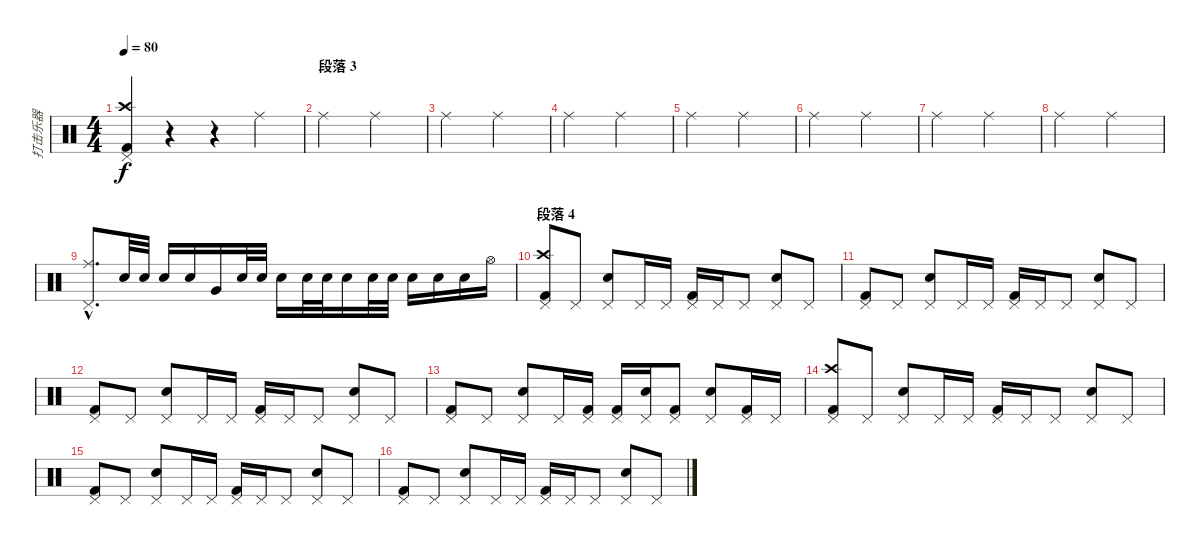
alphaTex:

\track ("打击乐器" "打击乐器") {instrument percussion}
\staff {score}
\articulation defaults
\ts (4 4)
\tempo 80
\clef neutral
\ks c
("Pedal Hi-Hat (hit)" "Crash high (hit)" "Kick (hit) 2").4{dy f} r.4 r.4 "Ride (middle)".4 |
\section ("" "段落 3")
"Ride (middle)".2 "Ride (middle)".2 |
"Ride (middle)".2 "Ride (middle)".2 |
"Ride (middle)".2 "Ride (middle)".2 |
"Ride (middle)".2 "Ride (middle)".2 |
"Ride (middle)".2 "Ride (middle)".2 |
"Ride (middle)".2 "Ride (middle)".2 |
"Ride (middle)".2 "Ride (middle)".2 |
("Ride (middle)"{hac} "Pedal Hi-Hat (hit)"{hac}).8{d} "Snare (hit) 2".32 "Snare (hit) 2".32 "Snare (hit) 2".16 "Snare (hit) 2".16 "Very Low Tom (hit)".16 "Snare (hit) 2".32 "Snare (hit) 2".32 "Snare (hit) 2".16 "Snare (hit) 2".32 "Snare (hit) 2".32 "Snare (hit) 2".16 "Snare (hit) 2".32 "Snare (hit) 2".32 "Snare (hit) 2".16 "Snare (hit) 2".16 "Snare (hit) 2".16 "Hi-Hat (open)".16 |
\section ("" "段落 4")
("Pedal Hi-Hat (hit)" "Crash high (hit)" "Kick (hit) 2").8 "Pedal Hi-Hat (hit)".8 ("Pedal Hi-Hat (hit)" "Snare (hit) 2").8 "Pedal Hi-Hat (hit)".16 "Pedal Hi-Hat (hit)".16 ("Pedal Hi-Hat (hit)" "Kick (hit) 2").16 "Pedal Hi-Hat (hit)".16 "Pedal Hi-Hat (hit)".8 ("Pedal Hi-Hat (hit)" "Snare (hit) 2").8 "Pedal Hi-Hat (hit)".8 |
("Pedal Hi-Hat (hit)" "Kick (hit) 2").8 "Pedal Hi-Hat (hit)".8 ("Pedal Hi-Hat (hit)" "Snare (hit) 2").8 "Pedal Hi-Hat (hit)".16 "Pedal Hi-Hat (hit)".16 ("Pedal Hi-Hat (hit)" "Kick (hit) 2").16 "Pedal Hi-Hat (hit)".16 "Pedal Hi-Hat (hit)".8 ("Pedal Hi-Hat (hit)" "Snare (hit) 2").8 "Pedal Hi-Hat (hit)".8 |
("Pedal Hi-Hat (hit)" "Kick (hit) 2").8 "Pedal Hi-Hat (hit)".8 ("Pedal Hi-Hat (hit)" "Snare (hit) 2").8 "Pedal Hi-Hat (hit)".16 "Pedal Hi-Hat (hit)".16 ("Pedal Hi-Hat (hit)" "Kick (hit) 2").16 "Pedal Hi-Hat (hit)".16 "Pedal Hi-Hat (hit)".8 ("Pedal Hi-Hat (hit)" "Snare (hit) 2").8 "Pedal Hi-Hat (hit)".8 |
("Pedal Hi-Hat (hit)" "Kick (hit) 2").8 "Pedal Hi-Hat (hit)".8 ("Pedal Hi-Hat (hit)" "Snare (hit) 2").8 "Pedal Hi-Hat (hit)".16 ("Pedal Hi-Hat (hit)" "Kick (hit) 2").16 ("Pedal Hi-Hat (hit)" "Kick (hit) 2").16 ("Pedal Hi-Hat (hit)" "Snare (hit) 2").16 ("Pedal Hi-Hat (hit)" "Kick (hit) 2").8 ("Pedal Hi-Hat (hit)" "Snare (hit) 2").8 ("Pedal Hi-Hat (hit)" "Kick (hit) 2").16 "Pedal Hi-Hat (hit)".16 |
("Pedal Hi-Hat (hit)" "Crash high (hit)" "Kick (hit) 2").8 "Pedal Hi-Hat (hit)".8 ("Pedal Hi-Hat (hit)" "Snare (hit) 2").8 "Pedal Hi-Hat (hit)".16 "Pedal Hi-Hat (hit)".16 ("Pedal Hi-Hat (hit)" "Kick (hit) 2").16 "Pedal Hi-Hat (hit)".16 "Pedal Hi-Hat (hit)".8 ("Pedal Hi-Hat (hit)" "Snare (hit) 2").8 "Pedal Hi-Hat (hit)".8 |
("Pedal Hi-Hat (hit)" "Kick (hit) 2").8 "Pedal Hi-Hat (hit)".8 ("Pedal Hi-Hat (hit)" "Snare (hit) 2").8 "Pedal Hi-Hat (hit)".16 "Pedal Hi-Hat (hit)".16 ("Pedal Hi-Hat (hit)" "Kick (hit) 2").16 "Pedal Hi-Hat (hit)".16 "Pedal Hi-Hat (hit)".8 ("Pedal Hi-Hat (hit)" "Snare (hit) 2").8 "Pedal Hi-Hat (hit)".8 |
("Pedal Hi-Hat (hit)" "Kick (hit) 2").8 "Pedal Hi-Hat (hit)".8 ("Pedal Hi-Hat (hit)" "Snare (hit) 2").8 "Pedal Hi-Hat (hit)".16 "Pedal Hi-Hat (hit)".16 ("Pedal Hi-Hat (hit)" "Kick (hit) 2").16 "Pedal Hi-Hat (hit)".16 "Pedal Hi-Hat (hit)".8 ("Pedal Hi-Hat (hit)" "Snare (hit) 2").8 "Pedal Hi-Hat (hit)".8
